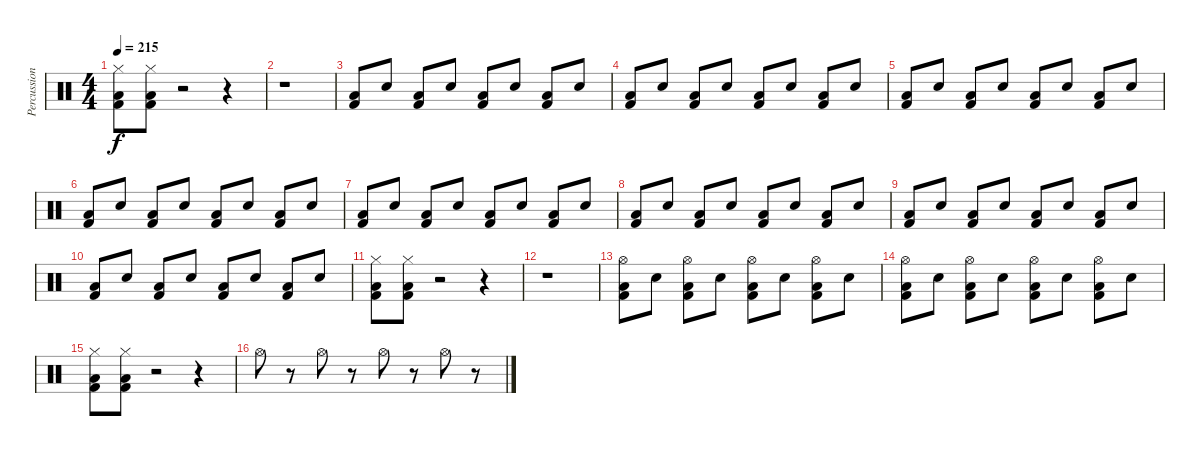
\track ("Percussion" "Percussion") {instrument percussion}
\staff {score}
\articulation defaults
\ts (4 4)
\tempo 215
\clef neutral
\ks c
("Hi-Hat (closed)" "Kick (hit) 2" "Low Floor Tom (hit)").8{dy f} ("Hi-Hat (closed)" "Kick (hit) 2" "Low Floor Tom (hit)").8 r.2 r.4 |
r.1 |
("Kick (hit) 2" "Low Floor Tom (hit)").8 "Electric Snare (hit)".8 ("Kick (hit) 2" "Low Floor Tom (hit)").8 "Electric Snare (hit)".8 ("Kick (hit) 2" "Low Floor Tom (hit)").8 "Electric Snare (hit)".8 ("Kick (hit) 2" "Low Floor Tom (hit)").8 "Electric Snare (hit)".8 |
("Kick (hit) 2" "Low Floor Tom (hit)").8 "Electric Snare (hit)".8 ("Kick (hit) 2" "Low Floor Tom (hit)").8 "Electric Snare (hit)".8 ("Kick (hit) 2" "Low Floor Tom (hit)").8 "Electric Snare (hit)".8 ("Kick (hit) 2" "Low Floor Tom (hit)").8 "Electric Snare (hit)".8 |
("Kick (hit) 2" "Low Floor Tom (hit)").8 "Electric Snare (hit)".8 ("Kick (hit) 2" "Low Floor Tom (hit)").8 "Electric Snare (hit)".8 ("Kick (hit) 2" "Low Floor Tom (hit)").8 "Electric Snare (hit)".8 ("Kick (hit) 2" "Low Floor Tom (hit)").8 "Electric Snare (hit)".8 |
("Kick (hit) 2" "Low Floor Tom (hit)").8 "Electric Snare (hit)".8 ("Kick (hit) 2" "Low Floor Tom (hit)").8 "Electric Snare (hit)".8 ("Kick (hit) 2" "Low Floor Tom (hit)").8 "Electric Snare (hit)".8 ("Kick (hit) 2" "Low Floor Tom (hit)").8 "Electric Snare (hit)".8 |
("Kick (hit) 2" "Low Floor Tom (hit)").8 "Electric Snare (hit)".8 ("Kick (hit) 2" "Low Floor Tom (hit)").8 "Electric Snare (hit)".8 ("Kick (hit) 2" "Low Floor Tom (hit)").8 "Electric Snare (hit)".8 ("Kick (hit) 2" "Low Floor Tom (hit)").8 "Electric Snare (hit)".8 |
("Kick (hit) 2" "Low Floor Tom (hit)").8 "Electric Snare (hit)".8 ("Kick (hit) 2" "Low Floor Tom (hit)").8 "Electric Snare (hit)".8 ("Kick (hit) 2" "Low Floor Tom (hit)").8 "Electric Snare (hit)".8 ("Kick (hit) 2" "Low Floor Tom (hit)").8 "Electric Snare (hit)".8 |
("Kick (hit) 2" "Low Floor Tom (hit)").8 "Electric Snare (hit)".8 ("Kick (hit) 2" "Low Floor Tom (hit)").8 "Electric Snare (hit)".8 ("Kick (hit) 2" "Low Floor Tom (hit)").8 "Electric Snare (hit)".8 ("Kick (hit) 2" "Low Floor Tom (hit)").8 "Electric Snare (hit)".8 |
("Kick (hit) 2" "Low Floor Tom (hit)").8 "Electric Snare (hit)".8 ("Kick (hit) 2" "Low Floor Tom (hit)").8 "Electric Snare (hit)".8 ("Kick (hit) 2" "Low Floor Tom (hit)").8 "Electric Snare (hit)".8 ("Kick (hit) 2" "Low Floor Tom (hit)").8 "Electric Snare (hit)".8 |
("Hi-Hat (closed)" "Kick (hit) 2" "Low Floor Tom (hit)").8 ("Hi-Hat (closed)" "Kick (hit) 2" "Low Floor Tom (hit)").8 r.2 r.4 |
r.1 |
("Hi-Hat (open)" "Kick (hit) 2" "Low Floor Tom (hit)").8 "Electric Snare (hit)".8 ("Hi-Hat (open)" "Kick (hit) 2" "Low Floor Tom (hit)").8 "Electric Snare (hit)".8 ("Hi-Hat (open)" "Kick (hit) 2" "Low Floor Tom (hit)").8 "Electric Snare (hit)".8 ("Hi-Hat (open)" "Kick (hit) 2" "Low Floor Tom (hit)").8 "Electric Snare (hit)".8 |
("Hi-Hat (open)" "Kick (hit) 2" "Low Floor Tom (hit)").8 "Electric Snare (hit)".8 ("Hi-Hat (open)" "Kick (hit) 2" "Low Floor Tom (hit)").8 "Electric Snare (hit)".8 ("Hi-Hat (open)" "Kick (hit) 2" "Low Floor Tom (hit)").8 "Electric Snare (hit)".8 ("Hi-Hat (open)" "Kick (hit) 2" "Low Floor Tom (hit)").8 "Electric Snare (hit)".8 |
("Hi-Hat (closed)" "Kick (hit) 2" "Low Floor Tom (hit)").8 ("Hi-Hat (closed)" "Kick (hit) 2" "Low Floor Tom (hit)").8 r.2 r.4 |
"Hi-Hat (open)".8 r.8 "Hi-Hat (open)".8 r.8 "Hi-Hat (open)".8 r.8 "Hi-Hat (open)".8 r.8
